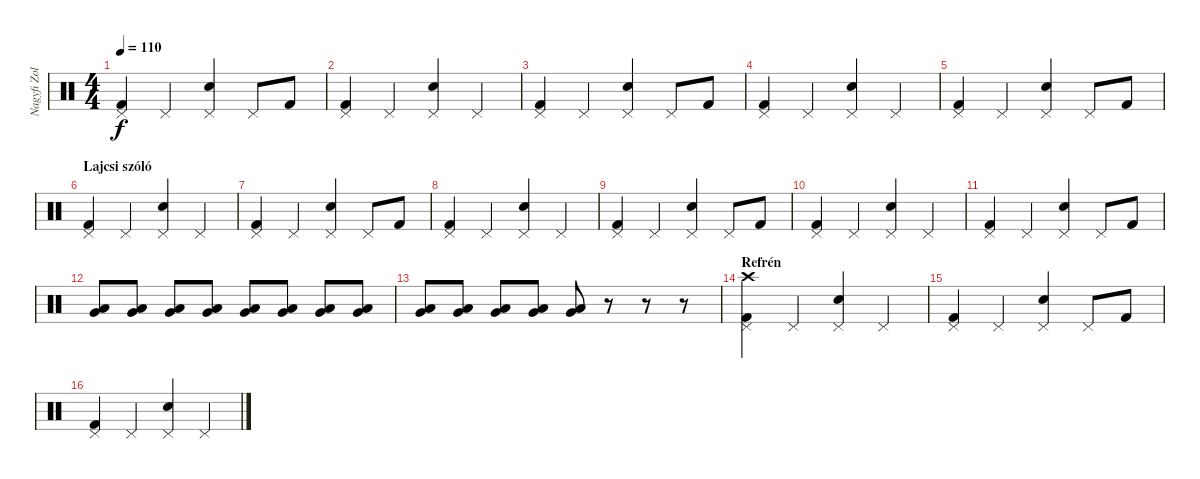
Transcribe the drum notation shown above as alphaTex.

\track ("Nagyfi Zoltán (dob)" "Nagyfi Zol") {instrument percussion}
\staff {score}
\articulation defaults
\ts (4 4)
\tempo 110
\clef neutral
\ks c
("Pedal Hi-Hat (hit)" "Kick (hit) 2").4{dy f} "Pedal Hi-Hat (hit)".4 ("Pedal Hi-Hat (hit)" "Snare (hit) 2").4 "Pedal Hi-Hat (hit)".8 "Kick (hit) 2".8 |
("Pedal Hi-Hat (hit)" "Kick (hit) 2").4 "Pedal Hi-Hat (hit)".4 ("Pedal Hi-Hat (hit)" "Snare (hit) 2").4 "Pedal Hi-Hat (hit)".4 |
("Pedal Hi-Hat (hit)" "Kick (hit) 2").4 "Pedal Hi-Hat (hit)".4 ("Pedal Hi-Hat (hit)" "Snare (hit) 2").4 "Pedal Hi-Hat (hit)".8 "Kick (hit) 2".8 |
("Pedal Hi-Hat (hit)" "Kick (hit) 2").4 "Pedal Hi-Hat (hit)".4 ("Pedal Hi-Hat (hit)" "Snare (hit) 2").4 "Pedal Hi-Hat (hit)".4 |
("Pedal Hi-Hat (hit)" "Kick (hit) 2").4 "Pedal Hi-Hat (hit)".4 ("Pedal Hi-Hat (hit)" "Snare (hit) 2").4 "Pedal Hi-Hat (hit)".8 "Kick (hit) 2".8 |
\section ("" "Lajcsi szóló")
("Pedal Hi-Hat (hit)" "Kick (hit) 2").4 "Pedal Hi-Hat (hit)".4 ("Pedal Hi-Hat (hit)" "Snare (hit) 2").4 "Pedal Hi-Hat (hit)".4 |
("Pedal Hi-Hat (hit)" "Kick (hit) 2").4 "Pedal Hi-Hat (hit)".4 ("Pedal Hi-Hat (hit)" "Snare (hit) 2").4 "Pedal Hi-Hat (hit)".8 "Kick (hit) 2".8 |
("Pedal Hi-Hat (hit)" "Kick (hit) 2").4 "Pedal Hi-Hat (hit)".4 ("Pedal Hi-Hat (hit)" "Snare (hit) 2").4 "Pedal Hi-Hat (hit)".4 |
("Pedal Hi-Hat (hit)" "Kick (hit) 2").4 "Pedal Hi-Hat (hit)".4 ("Pedal Hi-Hat (hit)" "Snare (hit) 2").4 "Pedal Hi-Hat (hit)".8 "Kick (hit) 2".8 |
("Pedal Hi-Hat (hit)" "Kick (hit) 2").4 "Pedal Hi-Hat (hit)".4 ("Pedal Hi-Hat (hit)" "Snare (hit) 2").4 "Pedal Hi-Hat (hit)".4 |
("Pedal Hi-Hat (hit)" "Kick (hit) 2").4 "Pedal Hi-Hat (hit)".4 ("Pedal Hi-Hat (hit)" "Snare (hit) 2").4 "Pedal Hi-Hat (hit)".8 "Kick (hit) 2".8 |
("Low Tom (hit)" "Very Low Tom (hit)").8 ("Low Tom (hit)" "Very Low Tom (hit)").8 ("Low Tom (hit)" "Very Low Tom (hit)").8 ("Low Tom (hit)" "Very Low Tom (hit)").8 ("Low Tom (hit)" "Very Low Tom (hit)").8 ("Low Tom (hit)" "Very Low Tom (hit)").8 ("Low Tom (hit)" "Very Low Tom (hit)").8 ("Low Tom (hit)" "Very Low Tom (hit)").8 |
("Low Tom (hit)" "Very Low Tom (hit)").8 ("Low Tom (hit)" "Very Low Tom (hit)").8 ("Low Tom (hit)" "Very Low Tom (hit)").8 ("Low Tom (hit)" "Very Low Tom (hit)").8 ("Low Tom (hit)" "Very Low Tom (hit)").8 r.8 r.8 r.8 |
\section ("" "Refrén")
("Pedal Hi-Hat (hit)" "Kick (hit) 2" "Crash high (hit)").4 "Pedal Hi-Hat (hit)".4 ("Pedal Hi-Hat (hit)" "Snare (hit) 2").4 "Pedal Hi-Hat (hit)".4 |
("Pedal Hi-Hat (hit)" "Kick (hit) 2").4 "Pedal Hi-Hat (hit)".4 ("Pedal Hi-Hat (hit)" "Snare (hit) 2").4 "Pedal Hi-Hat (hit)".8 "Kick (hit) 2".8 |
("Pedal Hi-Hat (hit)" "Kick (hit) 2").4 "Pedal Hi-Hat (hit)".4 ("Pedal Hi-Hat (hit)" "Snare (hit) 2").4 "Pedal Hi-Hat (hit)".4
